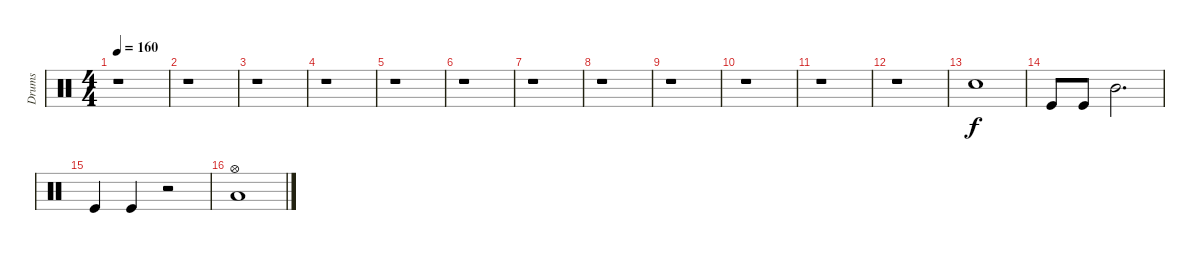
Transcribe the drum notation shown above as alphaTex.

\track ("Drums" "Drums") {instrument percussion}
\staff {score}
\articulation defaults
\ts (4 4)
\tempo 160
\clef neutral
\ks c
r.1{dy f} |
r.1 |
r.1 |
r.1 |
r.1 |
r.1 |
r.1 |
r.1 |
r.1 |
r.1 |
r.1 |
r.1 |
"Snare (hit) 2".1 |
"Kick (hit)".8 "Kick (hit)".8 "Mid Tom (hit)".2{d} |
"Kick (hit)".4 "Kick (hit)".4 r.2 |
("Hi-Hat (open)" "Low Tom (hit)").1
